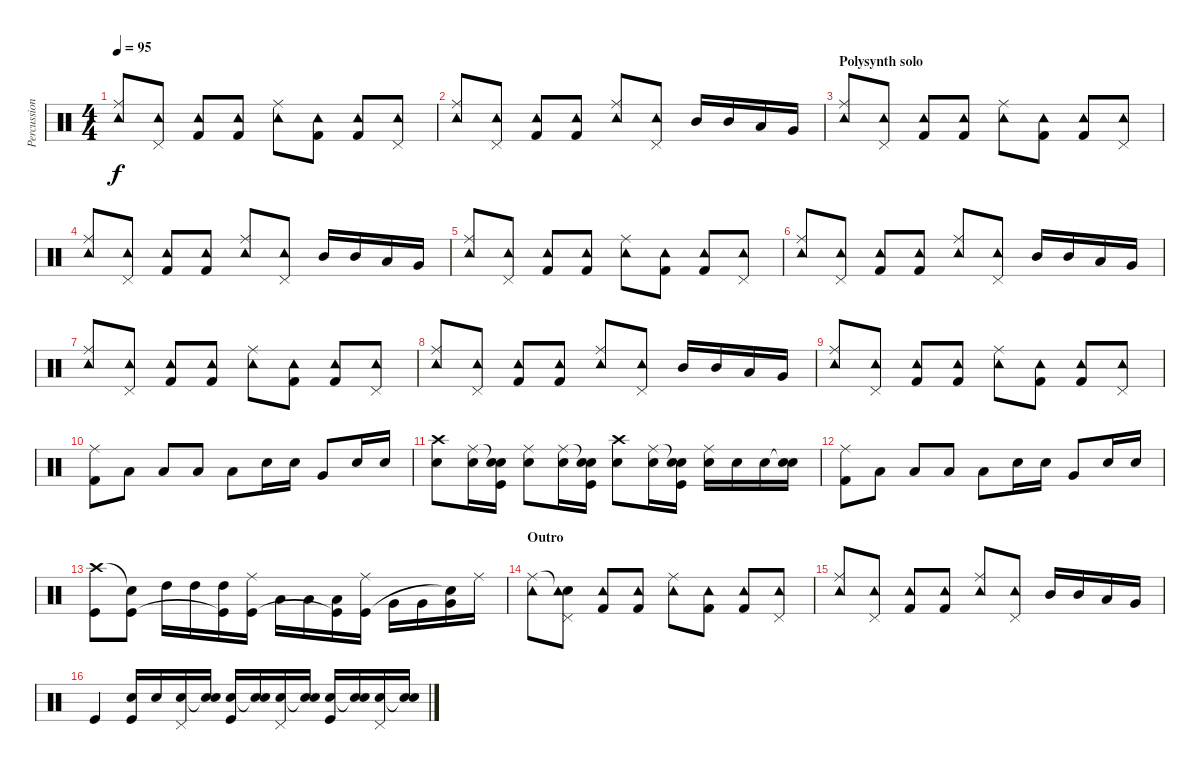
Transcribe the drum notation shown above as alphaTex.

\track ("Percussions" "Percussion") {instrument percussion}
\staff {score}
\articulation defaults
\ts (4 4)
\tempo 95
\clef neutral
\ks c
("Ride (middle)" "Tambourine (hit)").8{dy f} ("Pedal Hi-Hat (hit)" "Tambourine (hit)").8 ("Tambourine (hit)" "Kick (hit) 2").8 ("Tambourine (hit)" "Kick (hit) 2").8 ("Ride (middle)" "Tambourine (hit)").8 ("Tambourine (hit)" "Kick (hit) 2").8 ("Tambourine (hit)" "Kick (hit) 2").8 ("Pedal Hi-Hat (hit)" "Tambourine (hit)").8 |
("Ride (middle)" "Tambourine (hit)").8 ("Pedal Hi-Hat (hit)" "Tambourine (hit)").8 ("Tambourine (hit)" "Kick (hit) 2").8 ("Tambourine (hit)" "Kick (hit) 2").8 ("Ride (middle)" "Tambourine (hit)").8 ("Pedal Hi-Hat (hit)" "Tambourine (hit)").8 "Mid Tom (hit)".16 "Mid Tom (hit)".16 "Low Tom (hit)".16 "Very Low Tom (hit)".16 |
\section ("" "Polysynth solo")
("Ride (middle)" "Tambourine (hit)").8 ("Pedal Hi-Hat (hit)" "Tambourine (hit)").8 ("Tambourine (hit)" "Kick (hit) 2").8 ("Tambourine (hit)" "Kick (hit) 2").8 ("Ride (middle)" "Tambourine (hit)").8 ("Tambourine (hit)" "Kick (hit) 2").8 ("Tambourine (hit)" "Kick (hit) 2").8 ("Pedal Hi-Hat (hit)" "Tambourine (hit)").8 |
("Ride (middle)" "Tambourine (hit)").8 ("Pedal Hi-Hat (hit)" "Tambourine (hit)").8 ("Tambourine (hit)" "Kick (hit) 2").8 ("Tambourine (hit)" "Kick (hit) 2").8 ("Ride (middle)" "Tambourine (hit)").8 ("Pedal Hi-Hat (hit)" "Tambourine (hit)").8 "Mid Tom (hit)".16 "Mid Tom (hit)".16 "Low Tom (hit)".16 "Very Low Tom (hit)".16 |
("Ride (middle)" "Tambourine (hit)").8 ("Pedal Hi-Hat (hit)" "Tambourine (hit)").8 ("Tambourine (hit)" "Kick (hit) 2").8 ("Tambourine (hit)" "Kick (hit) 2").8 ("Ride (middle)" "Tambourine (hit)").8 ("Tambourine (hit)" "Kick (hit) 2").8 ("Tambourine (hit)" "Kick (hit) 2").8 ("Pedal Hi-Hat (hit)" "Tambourine (hit)").8 |
("Ride (middle)" "Tambourine (hit)").8 ("Pedal Hi-Hat (hit)" "Tambourine (hit)").8 ("Tambourine (hit)" "Kick (hit) 2").8 ("Tambourine (hit)" "Kick (hit) 2").8 ("Ride (middle)" "Tambourine (hit)").8 ("Pedal Hi-Hat (hit)" "Tambourine (hit)").8 "Mid Tom (hit)".16 "Mid Tom (hit)".16 "Low Tom (hit)".16 "Very Low Tom (hit)".16 |
("Ride (middle)" "Tambourine (hit)").8 ("Pedal Hi-Hat (hit)" "Tambourine (hit)").8 ("Tambourine (hit)" "Kick (hit) 2").8 ("Tambourine (hit)" "Kick (hit) 2").8 ("Ride (middle)" "Tambourine (hit)").8 ("Tambourine (hit)" "Kick (hit) 2").8 ("Tambourine (hit)" "Kick (hit) 2").8 ("Pedal Hi-Hat (hit)" "Tambourine (hit)").8 |
("Ride (middle)" "Tambourine (hit)").8 ("Pedal Hi-Hat (hit)" "Tambourine (hit)").8 ("Tambourine (hit)" "Kick (hit) 2").8 ("Tambourine (hit)" "Kick (hit) 2").8 ("Ride (middle)" "Tambourine (hit)").8 ("Pedal Hi-Hat (hit)" "Tambourine (hit)").8 "Mid Tom (hit)".16 "Mid Tom (hit)".16 "Low Tom (hit)".16 "Very Low Tom (hit)".16 |
("Ride (middle)" "Tambourine (hit)").8 ("Pedal Hi-Hat (hit)" "Tambourine (hit)").8 ("Tambourine (hit)" "Kick (hit) 2").8 ("Tambourine (hit)" "Kick (hit) 2").8 ("Ride (middle)" "Tambourine (hit)").8 ("Tambourine (hit)" "Kick (hit) 2").8 ("Tambourine (hit)" "Kick (hit) 2").8 ("Pedal Hi-Hat (hit)" "Tambourine (hit)").8 |
("Ride (middle)" "Kick (hit) 2").8 "Low Tom (hit)".8 "Low Tom (hit)".8 "Low Tom (hit)".8 "Low Tom (hit)".8 "Snare (hit) 2".16 "Snare (hit) 2".16 "Very Low Tom (hit)".8 "Snare (hit) 2".16 "Snare (hit) 2".16 |
("Crash high (hit)" "Snare (hit) 2").8 ("Ride (middle)" "Snare (hit) 2").16 ("Snare (hit)"{t} "Snare (hit) 2" "Kick (hit)").16 ("Ride (middle)" "Snare (hit) 2").8 ("Ride (middle)" "Snare (hit) 2").16 ("Snare (hit)"{t} "Snare (hit) 2" "Kick (hit)").16 ("Crash high (hit)" "Snare (hit) 2").8 ("Ride (middle)" "Snare (hit) 2").16 ("Snare (hit)"{t} "Snare (hit) 2" "Kick (hit)").16 ("Ride (middle)" "Snare (hit) 2").16 "Snare (hit) 2".16 "Snare (hit) 2".16 ("Snare (hit)"{t} "Snare (hit) 2").16 |
("Ride (middle)" "Kick (hit) 2").8 "Low Tom (hit)".8 "Low Tom (hit)".8 "Low Tom (hit)".8 "Low Tom (hit)".8 "Snare (hit) 2".16 "Snare (hit) 2".16 "Very Low Tom (hit)".8 "Snare (hit) 2".16 "Snare (hit) 2".16 |
("Crash high (hit)" "Kick (hit)").8 ("Snare (hit)"{t} "Kick (hit)").8 "High Tom (hit)".16 "High Tom (hit)".16 ("High Tom (hit)" "Kick (hit)"{t}).16 ("Ride (middle)" "Kick (hit)").16 "Low Tom (hit)".16 "Low Tom (hit)".16 ("Low Tom (hit)" "Kick (hit)"{t}).16 ("Ride (middle)" "Kick (hit)").16 "Very Low Tom (hit)".16 "Very Low Tom (hit)".16 ("Very Low Tom (hit)" "Snare (hit)"{t}).16 "Ride (middle)".16 |
\section ("" "Outro")
("Ride (middle)" "Tambourine (hit)").8 ("Snare (hit)"{t} "Pedal Hi-Hat (hit)" "Tambourine (hit)").8 ("Tambourine (hit)" "Kick (hit) 2").8 ("Tambourine (hit)" "Kick (hit) 2").8 ("Ride (middle)" "Tambourine (hit)").8 ("Tambourine (hit)" "Kick (hit) 2").8 ("Tambourine (hit)" "Kick (hit) 2").8 ("Pedal Hi-Hat (hit)" "Tambourine (hit)").8 |
("Ride (middle)" "Tambourine (hit)").8 ("Pedal Hi-Hat (hit)" "Tambourine (hit)").8 ("Tambourine (hit)" "Kick (hit) 2").8 ("Tambourine (hit)" "Kick (hit) 2").8 ("Ride (middle)" "Tambourine (hit)").8 ("Pedal Hi-Hat (hit)" "Tambourine (hit)").8 "Mid Tom (hit)".16 "Mid Tom (hit)".16 "Low Tom (hit)".16 "Very Low Tom (hit)".16 |
"Kick (hit)".4 ("Snare (hit) 2" "Kick (hit)").16 "Snare (hit) 2".16 ("Pedal Hi-Hat (hit)" "Snare (hit) 2").16 ("Snare (hit) 2" "Snare (hit)"{t}).16 ("Snare (hit) 2" "Kick (hit)").16 ("Snare (hit)"{t} "Snare (hit) 2").16 ("Pedal Hi-Hat (hit)" "Snare (hit) 2").16 ("Snare (hit) 2" "Snare (hit)"{t}).16 ("Snare (hit) 2" "Kick (hit)").16 ("Snare (hit)"{t} "Snare (hit) 2").16 ("Pedal Hi-Hat (hit)" "Snare (hit) 2").16 ("Snare (hit) 2" "Snare (hit)"{t}).16
